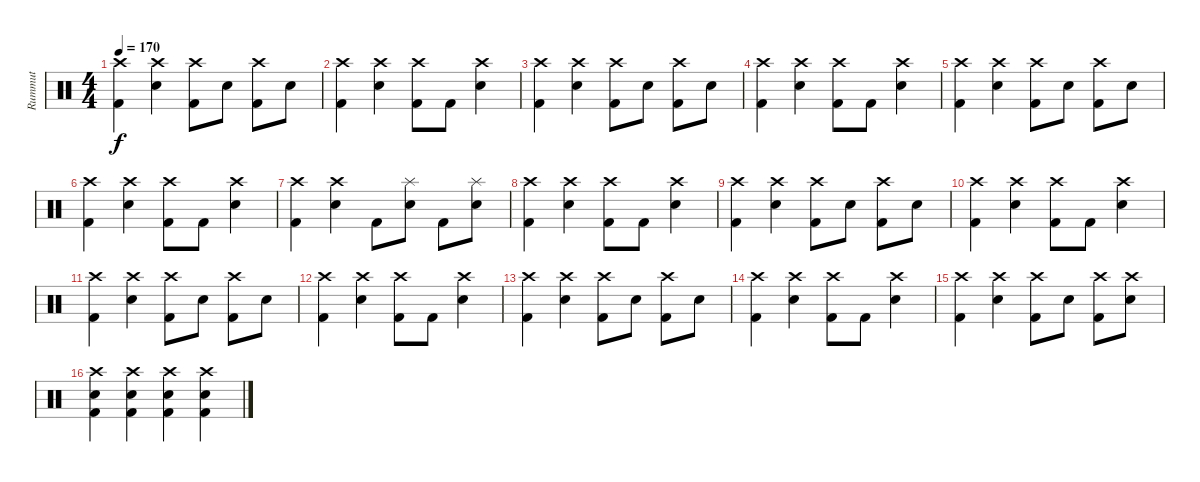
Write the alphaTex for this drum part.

\track ("Rummut" "Rummut") {instrument percussion}
\staff {score}
\articulation defaults
\ts (4 4)
\tempo 170
\clef neutral
\ks c
("Crash high (hit)" "Kick (hit) 2").4{dy f} ("Crash high (hit)" "Electric Snare (hit)").4 ("Crash high (hit)" "Kick (hit) 2").8 "Electric Snare (hit)".8 ("Crash high (hit)" "Kick (hit) 2").8 "Electric Snare (hit)".8 |
("Crash high (hit)" "Kick (hit) 2").4 ("Crash high (hit)" "Electric Snare (hit)").4 ("Crash high (hit)" "Kick (hit) 2").8 "Kick (hit) 2".8 ("Crash high (hit)" "Electric Snare (hit)").4 |
("Crash high (hit)" "Kick (hit) 2").4 ("Crash high (hit)" "Electric Snare (hit)").4 ("Crash high (hit)" "Kick (hit) 2").8 "Electric Snare (hit)".8 ("Crash high (hit)" "Kick (hit) 2").8 "Electric Snare (hit)".8 |
("Crash high (hit)" "Kick (hit) 2").4 ("Crash high (hit)" "Electric Snare (hit)").4 ("Crash high (hit)" "Kick (hit) 2").8 "Kick (hit) 2".8 ("Crash high (hit)" "Electric Snare (hit)").4 |
("Crash high (hit)" "Kick (hit) 2").4 ("Crash high (hit)" "Electric Snare (hit)").4 ("Crash high (hit)" "Kick (hit) 2").8 "Electric Snare (hit)".8 ("Crash high (hit)" "Kick (hit) 2").8 "Electric Snare (hit)".8 |
("Crash high (hit)" "Kick (hit) 2").4 ("Crash high (hit)" "Electric Snare (hit)").4 ("Crash high (hit)" "Kick (hit) 2").8 "Kick (hit) 2".8 ("Crash high (hit)" "Electric Snare (hit)").4 |
("Crash high (hit)" "Kick (hit) 2").4 ("Crash high (hit)" "Electric Snare (hit)").4 "Kick (hit) 2".8 ("Splash (hit)" "Electric Snare (hit)").8 "Kick (hit) 2".8 ("Splash (hit)" "Electric Snare (hit)").8 |
("Crash high (hit)" "Kick (hit) 2").4 ("Crash high (hit)" "Electric Snare (hit)").4 ("Crash high (hit)" "Kick (hit) 2").8 "Kick (hit) 2".8 ("Crash high (hit)" "Electric Snare (hit)").4 |
("Crash high (hit)" "Kick (hit) 2").4 ("Crash high (hit)" "Electric Snare (hit)").4 ("Crash high (hit)" "Kick (hit) 2").8 "Electric Snare (hit)".8 ("Crash high (hit)" "Kick (hit) 2").8 "Electric Snare (hit)".8 |
("Crash high (hit)" "Kick (hit) 2").4 ("Crash high (hit)" "Electric Snare (hit)").4 ("Crash high (hit)" "Kick (hit) 2").8 "Kick (hit) 2".8 ("Crash high (hit)" "Electric Snare (hit)").4 |
("Crash high (hit)" "Kick (hit) 2").4 ("Crash high (hit)" "Electric Snare (hit)").4 ("Crash high (hit)" "Kick (hit) 2").8 "Electric Snare (hit)".8 ("Crash high (hit)" "Kick (hit) 2").8 "Electric Snare (hit)".8 |
("Crash high (hit)" "Kick (hit) 2").4 ("Crash high (hit)" "Electric Snare (hit)").4 ("Crash high (hit)" "Kick (hit) 2").8 "Kick (hit) 2".8 ("Crash high (hit)" "Electric Snare (hit)").4 |
("Crash high (hit)" "Kick (hit) 2").4 ("Crash high (hit)" "Electric Snare (hit)").4 ("Crash high (hit)" "Kick (hit) 2").8 "Electric Snare (hit)".8 ("Crash high (hit)" "Kick (hit) 2").8 "Electric Snare (hit)".8 |
("Crash high (hit)" "Kick (hit) 2").4 ("Crash high (hit)" "Electric Snare (hit)").4 ("Crash high (hit)" "Kick (hit) 2").8 "Kick (hit) 2".8 ("Crash high (hit)" "Electric Snare (hit)").4 |
("Crash high (hit)" "Kick (hit) 2").4 ("Crash high (hit)" "Electric Snare (hit)").4 ("Crash high (hit)" "Kick (hit) 2").8 "Electric Snare (hit)".8 ("Crash high (hit)" "Kick (hit) 2").8 ("Crash high (hit)" "Electric Snare (hit)").8 |
("Crash high (hit)" "Electric Snare (hit)" "Kick (hit) 2").4 ("Crash high (hit)" "Electric Snare (hit)" "Kick (hit) 2").4 ("Crash high (hit)" "Electric Snare (hit)" "Kick (hit) 2").4 ("Crash high (hit)" "Electric Snare (hit)" "Kick (hit) 2").4
